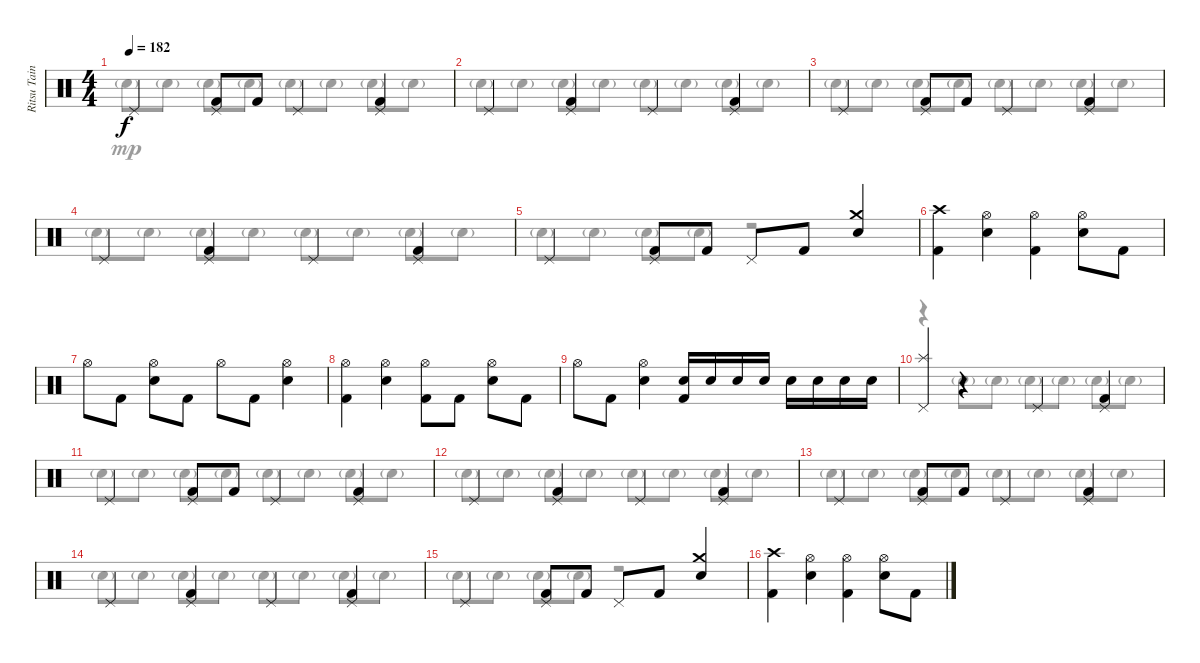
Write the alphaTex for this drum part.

\track ("Ritsu Tainaka" "Ritsu Tain") {instrument percussion}
\staff {score}
\articulation defaults
\voice
\ts (4 4)
\tempo 182
\clef neutral
\ks c "Pedal Hi-Hat (hit)".4{dy f}
("Pedal Hi-Hat (hit)" "Kick (hit) 2").8 "Kick (hit) 2".8 "Pedal Hi-Hat (hit)".4 ("Pedal Hi-Hat (hit)" "Kick (hit) 2").4 |
"Pedal Hi-Hat (hit)".4 ("Pedal Hi-Hat (hit)" "Kick (hit) 2").4 "Pedal Hi-Hat (hit)".4 ("Pedal Hi-Hat (hit)" "Kick (hit) 2").4 |
"Pedal Hi-Hat (hit)".4 ("Pedal Hi-Hat (hit)" "Kick (hit) 2").8 "Kick (hit) 2".8 "Pedal Hi-Hat (hit)".4 ("Pedal Hi-Hat (hit)" "Kick (hit) 2").4 |
"Pedal Hi-Hat (hit)".4 ("Pedal Hi-Hat (hit)" "Kick (hit) 2").4 "Pedal Hi-Hat (hit)".4 ("Pedal Hi-Hat (hit)" "Kick (hit) 2").4 |
"Pedal Hi-Hat (hit)".4 ("Pedal Hi-Hat (hit)" "Kick (hit) 2").8 "Kick (hit) 2".8 "Pedal Hi-Hat (hit)".8 "Kick (hit) 2".8 ("Crash medium (hit)" "Electric Snare (hit)").4 |
("Crash high (hit)" "Kick (hit) 2").4 ("Hi-Hat (open)" "Electric Snare (hit)").4 ("Hi-Hat (open)" "Kick (hit) 2").4 ("Hi-Hat (open)" "Electric Snare (hit)").8 "Kick (hit) 2".8 |
"Hi-Hat (open)".8 "Kick (hit) 2".8 ("Hi-Hat (open)" "Electric Snare (hit)").8 "Kick (hit) 2".8 "Hi-Hat (open)".8 "Kick (hit) 2".8 ("Hi-Hat (open)" "Electric Snare (hit)").4 |
("Hi-Hat (open)" "Kick (hit) 2").4 ("Hi-Hat (open)" "Electric Snare (hit)").4 ("Hi-Hat (open)" "Kick (hit) 2").8 "Kick (hit) 2".8 ("Hi-Hat (open)" "Electric Snare (hit)").8 "Kick (hit) 2".8 |
"Hi-Hat (open)".8 "Kick (hit) 2".8 ("Hi-Hat (open)" "Electric Snare (hit)").4 ("Electric Snare (hit)" "Kick (hit) 2").16 "Electric Snare (hit)".16 "Electric Snare (hit)".16 "Electric Snare (hit)".16 "Electric Snare (hit)".16 "Electric Snare (hit)".16 "Electric Snare (hit)".16 "Electric Snare (hit)".16 |
("Splash (hit)" "Pedal Hi-Hat (hit)").4 r.4 "Pedal Hi-Hat (hit)".4 ("Pedal Hi-Hat (hit)" "Kick (hit) 2").4 |
"Pedal Hi-Hat (hit)".4 ("Pedal Hi-Hat (hit)" "Kick (hit) 2").8 "Kick (hit) 2".8 "Pedal Hi-Hat (hit)".4 ("Pedal Hi-Hat (hit)" "Kick (hit) 2").4 |
"Pedal Hi-Hat (hit)".4 ("Pedal Hi-Hat (hit)" "Kick (hit) 2").4 "Pedal Hi-Hat (hit)".4 ("Pedal Hi-Hat (hit)" "Kick (hit) 2").4 |
"Pedal Hi-Hat (hit)".4 ("Pedal Hi-Hat (hit)" "Kick (hit) 2").8 "Kick (hit) 2".8 "Pedal Hi-Hat (hit)".4 ("Pedal Hi-Hat (hit)" "Kick (hit) 2").4 |
"Pedal Hi-Hat (hit)".4 ("Pedal Hi-Hat (hit)" "Kick (hit) 2").4 "Pedal Hi-Hat (hit)".4 ("Pedal Hi-Hat (hit)" "Kick (hit) 2").4 |
"Pedal Hi-Hat (hit)".4 ("Pedal Hi-Hat (hit)" "Kick (hit) 2").8 "Kick (hit) 2".8 "Pedal Hi-Hat (hit)".8 "Kick (hit) 2".8 ("Crash medium (hit)" "Electric Snare (hit)").4 |
("Crash high (hit)" "Kick (hit) 2").4 ("Hi-Hat (open)" "Electric Snare (hit)").4 ("Hi-Hat (open)" "Kick (hit) 2").4 ("Hi-Hat (open)" "Electric Snare (hit)").8 "Kick (hit) 2".8
\voice
\clef neutral
\ottava regular
\simile none
\ks c "Electric Snare (hit)"{g}.8{dy mp} "Electric Snare (hit)"{g}.8 "Electric Snare (hit)"{g}.8 "Electric Snare (hit)"{g}.8 "Electric Snare (hit)"{g}.8 "Electric Snare (hit)"{g}.8 "Electric Snare (hit)"{g}.8 "Electric Snare (hit)"{g}.8
|
"Electric Snare (hit)"{g}.8 "Electric Snare (hit)"{g}.8 "Electric Snare (hit)"{g}.8 "Electric Snare (hit)"{g}.8 "Electric Snare (hit)"{g}.8 "Electric Snare (hit)"{g}.8 "Electric Snare (hit)"{g}.8 "Electric Snare (hit)"{g}.8 |
"Electric Snare (hit)"{g}.8 "Electric Snare (hit)"{g}.8 "Electric Snare (hit)"{g}.8 "Electric Snare (hit)"{g}.8 "Electric Snare (hit)"{g}.8 "Electric Snare (hit)"{g}.8 "Electric Snare (hit)"{g}.8 "Electric Snare (hit)"{g}.8 |
"Electric Snare (hit)"{g}.8 "Electric Snare (hit)"{g}.8 "Electric Snare (hit)"{g}.8 "Electric Snare (hit)"{g}.8 "Electric Snare (hit)"{g}.8 "Electric Snare (hit)"{g}.8 "Electric Snare (hit)"{g}.8 "Electric Snare (hit)"{g}.8 |
"Electric Snare (hit)"{g}.8 "Electric Snare (hit)"{g}.8 "Electric Snare (hit)"{g}.8 "Electric Snare (hit)"{g}.8 r.2 |
|
|
|
|
r.4 "Electric Snare (hit)"{g}.8 "Electric Snare (hit)"{g}.8 "Electric Snare (hit)"{g}.8 "Electric Snare (hit)"{g}.8 "Electric Snare (hit)"{g}.8 "Electric Snare (hit)"{g}.8 |
"Electric Snare (hit)"{g}.8 "Electric Snare (hit)"{g}.8 "Electric Snare (hit)"{g}.8 "Electric Snare (hit)"{g}.8 "Electric Snare (hit)"{g}.8 "Electric Snare (hit)"{g}.8 "Electric Snare (hit)"{g}.8 "Electric Snare (hit)"{g}.8 |
"Electric Snare (hit)"{g}.8 "Electric Snare (hit)"{g}.8 "Electric Snare (hit)"{g}.8 "Electric Snare (hit)"{g}.8 "Electric Snare (hit)"{g}.8 "Electric Snare (hit)"{g}.8 "Electric Snare (hit)"{g}.8 "Electric Snare (hit)"{g}.8 |
"Electric Snare (hit)"{g}.8 "Electric Snare (hit)"{g}.8 "Electric Snare (hit)"{g}.8 "Electric Snare (hit)"{g}.8 "Electric Snare (hit)"{g}.8 "Electric Snare (hit)"{g}.8 "Electric Snare (hit)"{g}.8 "Electric Snare (hit)"{g}.8 |
"Electric Snare (hit)"{g}.8 "Electric Snare (hit)"{g}.8 "Electric Snare (hit)"{g}.8 "Electric Snare (hit)"{g}.8 "Electric Snare (hit)"{g}.8 "Electric Snare (hit)"{g}.8 "Electric Snare (hit)"{g}.8 "Electric Snare (hit)"{g}.8 |
"Electric Snare (hit)"{g}.8 "Electric Snare (hit)"{g}.8 "Electric Snare (hit)"{g}.8 "Electric Snare (hit)"{g}.8 r.2 |
